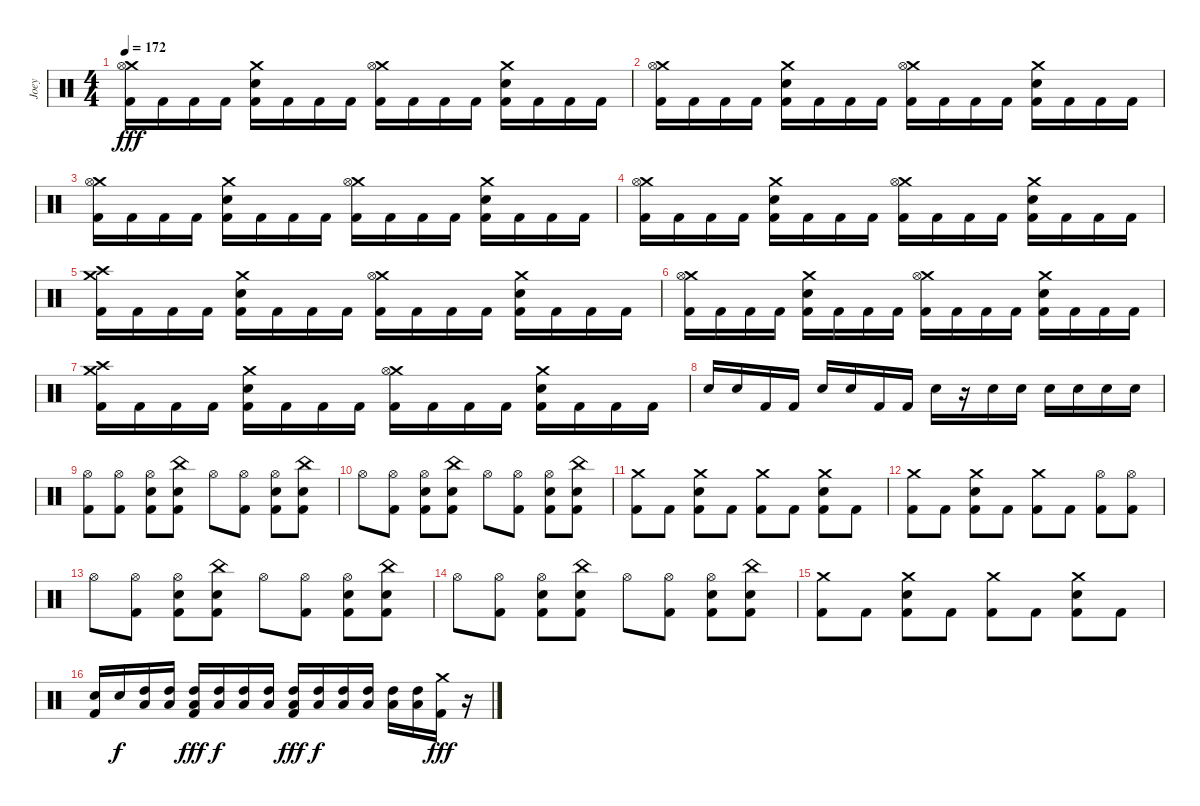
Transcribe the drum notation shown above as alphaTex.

\track ("Joey" "Joey") {instrument percussion}
\staff {score}
\articulation defaults
\ts (4 4)
\tempo 172
\clef neutral
\ks c
("Crash medium (hit)" "Hi-Hat (open)" "Kick (hit) 2").16{dy fff} "Kick (hit) 2".16 "Kick (hit) 2".16 "Kick (hit) 2".16 ("Crash medium (hit)" "Snare (hit) 2" "Kick (hit) 2").16 "Kick (hit) 2".16 "Kick (hit) 2".16 "Kick (hit) 2".16 ("Crash medium (hit)" "Hi-Hat (open)" "Kick (hit) 2").16 "Kick (hit) 2".16 "Kick (hit) 2".16 "Kick (hit) 2".16 ("Crash medium (hit)" "Snare (hit) 2" "Kick (hit) 2").16 "Kick (hit) 2".16 "Kick (hit) 2".16 "Kick (hit) 2".16 |
("Crash medium (hit)" "Hi-Hat (open)" "Kick (hit) 2").16 "Kick (hit) 2".16 "Kick (hit) 2".16 "Kick (hit) 2".16 ("Crash medium (hit)" "Snare (hit) 2" "Kick (hit) 2").16 "Kick (hit) 2".16 "Kick (hit) 2".16 "Kick (hit) 2".16 ("Crash medium (hit)" "Hi-Hat (open)" "Kick (hit) 2").16 "Kick (hit) 2".16 "Kick (hit) 2".16 "Kick (hit) 2".16 ("Crash medium (hit)" "Snare (hit) 2" "Kick (hit) 2").16 "Kick (hit) 2".16 "Kick (hit) 2".16 "Kick (hit) 2".16 |
("Crash medium (hit)" "Hi-Hat (open)" "Kick (hit) 2").16 "Kick (hit) 2".16 "Kick (hit) 2".16 "Kick (hit) 2".16 ("Crash medium (hit)" "Snare (hit) 2" "Kick (hit) 2").16 "Kick (hit) 2".16 "Kick (hit) 2".16 "Kick (hit) 2".16 ("Crash medium (hit)" "Hi-Hat (open)" "Kick (hit) 2").16 "Kick (hit) 2".16 "Kick (hit) 2".16 "Kick (hit) 2".16 ("Crash medium (hit)" "Snare (hit) 2" "Kick (hit) 2").16 "Kick (hit) 2".16 "Kick (hit) 2".16 "Kick (hit) 2".16 |
("Crash medium (hit)" "Hi-Hat (open)" "Kick (hit) 2").16 "Kick (hit) 2".16 "Kick (hit) 2".16 "Kick (hit) 2".16 ("Crash medium (hit)" "Snare (hit) 2" "Kick (hit) 2").16 "Kick (hit) 2".16 "Kick (hit) 2".16 "Kick (hit) 2".16 ("Crash medium (hit)" "Hi-Hat (open)" "Kick (hit) 2").16 "Kick (hit) 2".16 "Kick (hit) 2".16 "Kick (hit) 2".16 ("Crash medium (hit)" "Snare (hit) 2" "Kick (hit) 2").16 "Kick (hit) 2".16 "Kick (hit) 2".16 "Kick (hit) 2".16 |
("Crash medium (hit)" "Crash high (hit)" "Kick (hit) 2").16 "Kick (hit) 2".16 "Kick (hit) 2".16 "Kick (hit) 2".16 ("Crash medium (hit)" "Snare (hit) 2" "Kick (hit) 2").16 "Kick (hit) 2".16 "Kick (hit) 2".16 "Kick (hit) 2".16 ("Crash medium (hit)" "Hi-Hat (open)" "Kick (hit) 2").16 "Kick (hit) 2".16 "Kick (hit) 2".16 "Kick (hit) 2".16 ("Crash medium (hit)" "Snare (hit) 2" "Kick (hit) 2").16 "Kick (hit) 2".16 "Kick (hit) 2".16 "Kick (hit) 2".16 |
("Crash medium (hit)" "Hi-Hat (open)" "Kick (hit) 2").16 "Kick (hit) 2".16 "Kick (hit) 2".16 "Kick (hit) 2".16 ("Crash medium (hit)" "Snare (hit) 2" "Kick (hit) 2").16 "Kick (hit) 2".16 "Kick (hit) 2".16 "Kick (hit) 2".16 ("Crash medium (hit)" "Hi-Hat (open)" "Kick (hit) 2").16 "Kick (hit) 2".16 "Kick (hit) 2".16 "Kick (hit) 2".16 ("Crash medium (hit)" "Snare (hit) 2" "Kick (hit) 2").16 "Kick (hit) 2".16 "Kick (hit) 2".16 "Kick (hit) 2".16 |
("Crash medium (hit)" "Crash high (hit)" "Kick (hit) 2").16 "Kick (hit) 2".16 "Kick (hit) 2".16 "Kick (hit) 2".16 ("Crash medium (hit)" "Snare (hit) 2" "Kick (hit) 2").16 "Kick (hit) 2".16 "Kick (hit) 2".16 "Kick (hit) 2".16 ("Crash medium (hit)" "Hi-Hat (open)" "Kick (hit) 2").16 "Kick (hit) 2".16 "Kick (hit) 2".16 "Kick (hit) 2".16 ("Crash medium (hit)" "Snare (hit) 2" "Kick (hit) 2").16 "Kick (hit) 2".16 "Kick (hit) 2".16 "Kick (hit) 2".16 |
"Snare (hit) 2".16 "Snare (hit) 2".16 "Kick (hit) 2".16 "Kick (hit) 2".16 "Snare (hit) 2".16 "Snare (hit) 2".16 "Kick (hit) 2".16 "Kick (hit) 2".16 "Snare (hit) 2".16 r.16 "Snare (hit) 2".16 "Snare (hit) 2".16 "Snare (hit) 2".16 "Snare (hit) 2".16 "Snare (hit) 2".16 "Snare (hit) 2".16 |
("Hi-Hat (open)" "Kick (hit) 2").8 ("Hi-Hat (open)" "Kick (hit) 2").8 ("Hi-Hat (open)" "Snare (hit) 2" "Kick (hit) 2").8 ("China (hit)" "Snare (hit) 2" "Kick (hit) 2").8 "Hi-Hat (open)".8 ("Hi-Hat (open)" "Kick (hit) 2").8 ("Hi-Hat (open)" "Snare (hit) 2" "Kick (hit) 2").8 ("China (hit)" "Snare (hit) 2" "Kick (hit) 2").8 |
"Hi-Hat (open)".8 ("Hi-Hat (open)" "Kick (hit) 2").8 ("Hi-Hat (open)" "Snare (hit) 2" "Kick (hit) 2").8 ("China (hit)" "Snare (hit) 2" "Kick (hit) 2").8 "Hi-Hat (open)".8 ("Hi-Hat (open)" "Kick (hit) 2").8 ("Hi-Hat (open)" "Snare (hit) 2" "Kick (hit) 2").8 ("China (hit)" "Snare (hit) 2" "Kick (hit) 2").8 |
("Crash medium (hit)" "Kick (hit) 2").8 "Kick (hit) 2".8 ("Crash medium (hit)" "Snare (hit) 2" "Kick (hit) 2").8 "Kick (hit) 2".8 ("Crash medium (hit)" "Kick (hit) 2").8 "Kick (hit) 2".8 ("Crash medium (hit)" "Snare (hit) 2" "Kick (hit) 2").8 "Kick (hit) 2".8 |
("Crash medium (hit)" "Kick (hit) 2").8 "Kick (hit) 2".8 ("Crash medium (hit)" "Snare (hit) 2" "Kick (hit) 2").8 "Kick (hit) 2".8 ("Crash medium (hit)" "Kick (hit) 2").8 "Kick (hit) 2".8 ("Hi-Hat (open)" "Kick (hit) 2").8 ("Hi-Hat (open)" "Kick (hit) 2").8 |
"Hi-Hat (open)".8 ("Hi-Hat (open)" "Kick (hit) 2").8 ("Hi-Hat (open)" "Snare (hit) 2" "Kick (hit) 2").8 ("China (hit)" "Snare (hit) 2" "Kick (hit) 2").8 "Hi-Hat (open)".8 ("Hi-Hat (open)" "Kick (hit) 2").8 ("Hi-Hat (open)" "Snare (hit) 2" "Kick (hit) 2").8 ("China (hit)" "Snare (hit) 2" "Kick (hit) 2").8 |
"Hi-Hat (open)".8 ("Hi-Hat (open)" "Kick (hit) 2").8 ("Hi-Hat (open)" "Snare (hit) 2" "Kick (hit) 2").8 ("China (hit)" "Snare (hit) 2" "Kick (hit) 2").8 "Hi-Hat (open)".8 ("Hi-Hat (open)" "Kick (hit) 2").8 ("Hi-Hat (open)" "Snare (hit) 2" "Kick (hit) 2").8 ("China (hit)" "Snare (hit) 2" "Kick (hit) 2").8 |
("Crash medium (hit)" "Kick (hit) 2").8 "Kick (hit) 2".8 ("Crash medium (hit)" "Snare (hit) 2" "Kick (hit) 2").8 "Kick (hit) 2".8 ("Crash medium (hit)" "Kick (hit) 2").8 "Kick (hit) 2".8 ("Crash medium (hit)" "Snare (hit) 2" "Kick (hit) 2").8 "Kick (hit) 2".8 |
("Snare (hit) 2" "Kick (hit) 2").16 "Snare (hit) 2".16{dy f} ("High Tom (hit)" "Low Tom (hit)").16 ("High Tom (hit)" "Low Tom (hit)").16 ("High Tom (hit)" "Low Tom (hit)" "Kick (hit) 2").16{dy fff} ("High Tom (hit)" "Low Tom (hit)").16{dy f} ("High Tom (hit)" "Low Floor Tom (hit)").16 ("High Tom (hit)" "Low Floor Tom (hit)").16 ("High Tom (hit)" "Low Floor Tom (hit)" "Kick (hit) 2").16{dy fff} ("High Tom (hit)" "Low Floor Tom (hit)").16{dy f} ("High Tom (hit)" "Low Floor Tom (hit)").16 ("High Tom (hit)" "Low Floor Tom (hit)").16 ("High Tom (hit)" "Low Floor Tom (hit)").16 ("High Tom (hit)" "Low Floor Tom (hit)").16 ("Crash medium (hit)" "Kick (hit) 2").16{dy fff} r.16
